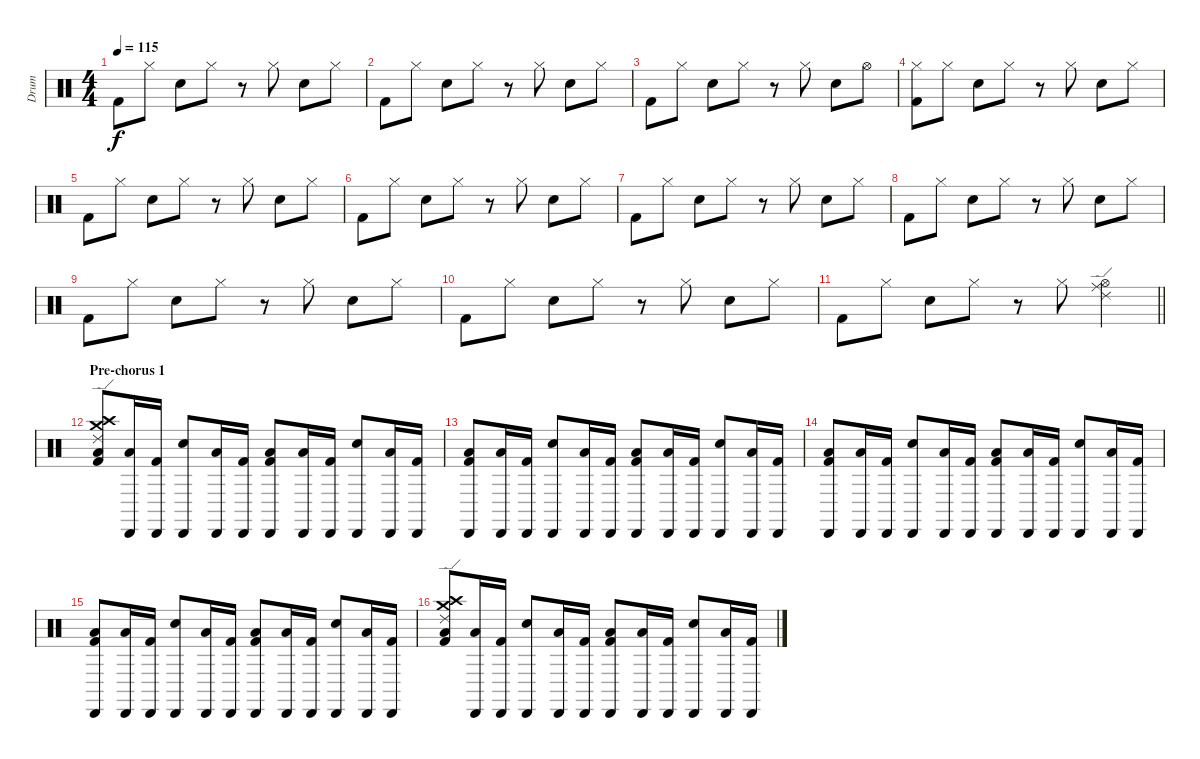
\track ("Drum" "Drum") {instrument percussion}
\staff {score}
\articulation defaults
\ts (4 4)
\tempo 115
\clef neutral
\ks c "Kick (hit) 2".8{dy f} "Hi-Hat (closed)".8 "Electric Snare (hit)".8 "Hi-Hat (closed)".8
r.8 "Hi-Hat (closed)".8 "Electric Snare (hit)".8 "Hi-Hat (closed)".8 |
"Kick (hit) 2".8 "Hi-Hat (closed)".8 "Electric Snare (hit)".8 "Hi-Hat (closed)".8 r.8 "Hi-Hat (closed)".8 "Electric Snare (hit)".8 "Hi-Hat (closed)".8 |
"Kick (hit) 2".8 "Hi-Hat (closed)".8 "Electric Snare (hit)".8 "Hi-Hat (closed)".8 r.8 "Hi-Hat (closed)".8 "Electric Snare (hit)".8 "Hi-Hat (open)".8 |
("Hi-Hat (closed)" "Kick (hit) 2").8 "Hi-Hat (closed)".8 "Electric Snare (hit)".8 "Hi-Hat (closed)".8 r.8 "Hi-Hat (closed)".8 "Electric Snare (hit)".8 "Hi-Hat (closed)".8 |
"Kick (hit) 2".8 "Hi-Hat (closed)".8 "Electric Snare (hit)".8 "Hi-Hat (closed)".8 r.8 "Hi-Hat (closed)".8 "Electric Snare (hit)".8 "Hi-Hat (closed)".8 |
"Kick (hit) 2".8 "Hi-Hat (closed)".8 "Electric Snare (hit)".8 "Hi-Hat (closed)".8 r.8 "Hi-Hat (closed)".8 "Electric Snare (hit)".8 "Hi-Hat (closed)".8 |
"Kick (hit) 2".8 "Hi-Hat (closed)".8 "Electric Snare (hit)".8 "Hi-Hat (closed)".8 r.8 "Hi-Hat (closed)".8 "Electric Snare (hit)".8 "Hi-Hat (closed)".8 |
"Kick (hit) 2".8 "Hi-Hat (closed)".8 "Electric Snare (hit)".8 "Hi-Hat (closed)".8 r.8 "Hi-Hat (closed)".8 "Electric Snare (hit)".8 "Hi-Hat (closed)".8 |
"Kick (hit) 2".8 "Hi-Hat (closed)".8 "Electric Snare (hit)".8 "Hi-Hat (closed)".8 r.8 "Hi-Hat (closed)".8 "Electric Snare (hit)".8 "Hi-Hat (closed)".8 |
"Kick (hit) 2".8 "Hi-Hat (closed)".8 "Electric Snare (hit)".8 "Hi-Hat (closed)".8 r.8 "Hi-Hat (closed)".8 "Electric Snare (hit)".8 "Hi-Hat (closed)".8 |
\barLineRight lightlight "Kick (hit) 2".8 "Hi-Hat (closed)".8 "Electric Snare (hit)".8 "Hi-Hat (closed)".8
r.8 "Hi-Hat (closed)".8 ("Ride (middle)" "Ride (edge) 2" "Hi-Hat (open)").4 |
\section ("" "Pre-chorus 1")
("Crash medium (hit)" "Crash high (hit)" "Ride (edge) 2" "Low Tom (hit)" "Kick (hit) 2").8 ("Cabasa (hit)" "Low Tom (hit)").16 ("Cabasa (hit)" "Kick (hit) 2").16 ("Cabasa (hit)" "Electric Snare (hit)").8 ("Cabasa (hit)" "Low Tom (hit)").16 ("Cabasa (hit)" "Kick (hit) 2").16 ("Cabasa (hit)" "Low Tom (hit)" "Kick (hit) 2").8 ("Cabasa (hit)" "Low Tom (hit)").16 ("Cabasa (hit)" "Kick (hit) 2").16 ("Cabasa (hit)" "Electric Snare (hit)").8 ("Cabasa (hit)" "Low Tom (hit)").16 ("Cabasa (hit)" "Kick (hit) 2").16 |
("Cabasa (hit)" "Low Tom (hit)" "Kick (hit) 2").8 ("Cabasa (hit)" "Low Tom (hit)").16 ("Cabasa (hit)" "Kick (hit) 2").16 ("Cabasa (hit)" "Electric Snare (hit)").8 ("Cabasa (hit)" "Low Tom (hit)").16 ("Cabasa (hit)" "Kick (hit) 2").16 ("Cabasa (hit)" "Low Tom (hit)" "Kick (hit) 2").8 ("Cabasa (hit)" "Low Tom (hit)").16 ("Cabasa (hit)" "Kick (hit) 2").16 ("Cabasa (hit)" "Electric Snare (hit)").8 ("Cabasa (hit)" "Low Tom (hit)").16 ("Cabasa (hit)" "Kick (hit) 2").16 |
("Cabasa (hit)" "Low Tom (hit)" "Kick (hit) 2").8 ("Cabasa (hit)" "Low Tom (hit)").16 ("Cabasa (hit)" "Kick (hit) 2").16 ("Cabasa (hit)" "Electric Snare (hit)").8 ("Cabasa (hit)" "Low Tom (hit)").16 ("Cabasa (hit)" "Kick (hit) 2").16 ("Cabasa (hit)" "Low Tom (hit)" "Kick (hit) 2").8 ("Cabasa (hit)" "Low Tom (hit)").16 ("Cabasa (hit)" "Kick (hit) 2").16 ("Cabasa (hit)" "Electric Snare (hit)").8 ("Cabasa (hit)" "Low Tom (hit)").16 ("Cabasa (hit)" "Kick (hit) 2").16 |
("Cabasa (hit)" "Low Tom (hit)" "Kick (hit) 2").8 ("Cabasa (hit)" "Low Tom (hit)").16 ("Cabasa (hit)" "Kick (hit) 2").16 ("Cabasa (hit)" "Electric Snare (hit)").8 ("Cabasa (hit)" "Low Tom (hit)").16 ("Cabasa (hit)" "Kick (hit) 2").16 ("Cabasa (hit)" "Low Tom (hit)" "Kick (hit) 2").8 ("Cabasa (hit)" "Low Tom (hit)").16 ("Cabasa (hit)" "Kick (hit) 2").16 ("Cabasa (hit)" "Electric Snare (hit)").8 ("Cabasa (hit)" "Low Tom (hit)").16 ("Cabasa (hit)" "Kick (hit) 2").16 |
("Crash high (hit)" "Crash medium (hit)" "Ride (edge) 2" "Low Tom (hit)" "Kick (hit) 2").8 ("Cabasa (hit)" "Low Tom (hit)").16 ("Cabasa (hit)" "Kick (hit) 2").16 ("Cabasa (hit)" "Electric Snare (hit)").8 ("Cabasa (hit)" "Low Tom (hit)").16 ("Cabasa (hit)" "Kick (hit) 2").16 ("Cabasa (hit)" "Low Tom (hit)" "Kick (hit) 2").8 ("Cabasa (hit)" "Low Tom (hit)").16 ("Cabasa (hit)" "Kick (hit) 2").16 ("Cabasa (hit)" "Electric Snare (hit)").8 ("Cabasa (hit)" "Low Tom (hit)").16 ("Cabasa (hit)" "Kick (hit) 2").16
